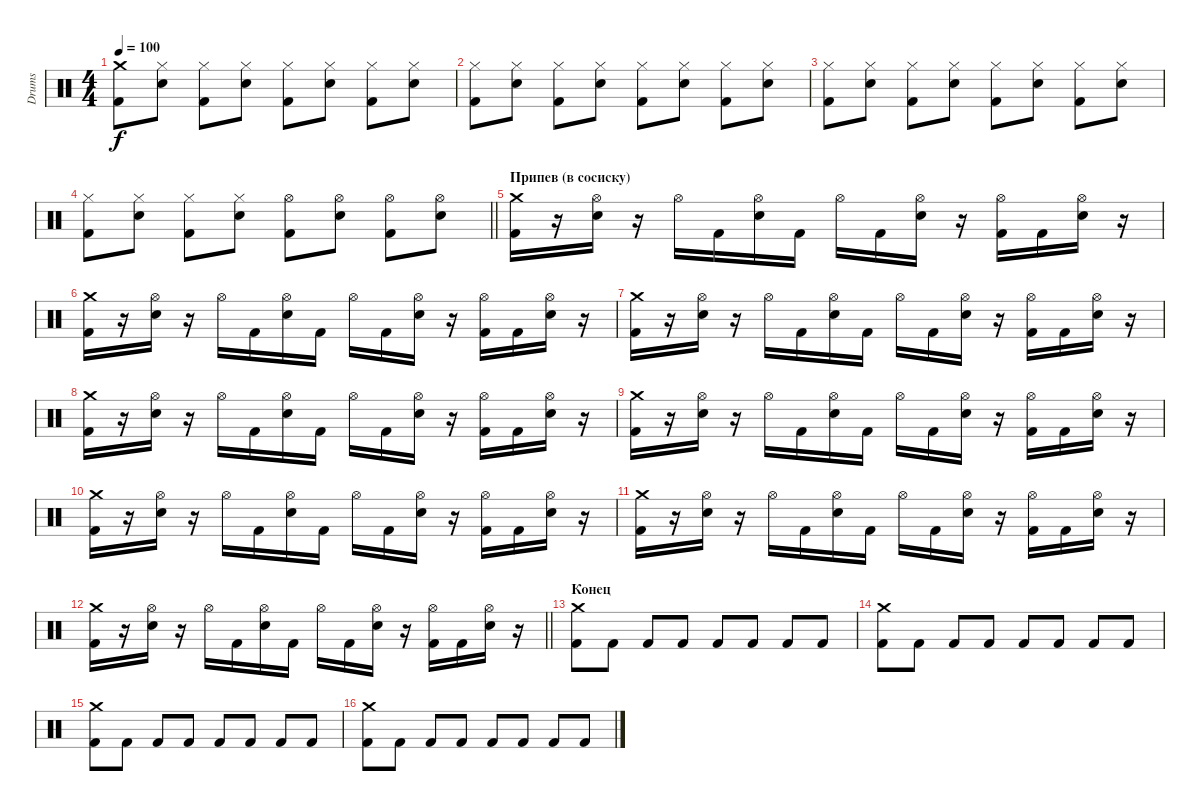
\track ("Drums" "Drums") {instrument percussion}
\staff {score}
\articulation defaults
\ts (4 4)
\tempo 100
\clef neutral
\ks c
("Crash medium (hit)" "Kick (hit) 2").8{dy f} ("Hi-Hat (closed)" "Snare (hit) 2").8 ("Hi-Hat (closed)" "Kick (hit) 2").8 ("Hi-Hat (closed)" "Snare (hit) 2").8 ("Hi-Hat (closed)" "Kick (hit) 2").8 ("Hi-Hat (closed)" "Snare (hit) 2").8 ("Hi-Hat (closed)" "Kick (hit) 2").8 ("Hi-Hat (closed)" "Snare (hit) 2").8 |
("Hi-Hat (closed)" "Kick (hit) 2").8 ("Hi-Hat (closed)" "Snare (hit) 2").8 ("Hi-Hat (closed)" "Kick (hit) 2").8 ("Hi-Hat (closed)" "Snare (hit) 2").8 ("Hi-Hat (closed)" "Kick (hit) 2").8 ("Hi-Hat (closed)" "Snare (hit) 2").8 ("Hi-Hat (closed)" "Kick (hit) 2").8 ("Hi-Hat (closed)" "Snare (hit) 2").8 |
("Hi-Hat (closed)" "Kick (hit) 2").8 ("Hi-Hat (closed)" "Snare (hit) 2").8 ("Hi-Hat (closed)" "Kick (hit) 2").8 ("Hi-Hat (closed)" "Snare (hit) 2").8 ("Hi-Hat (closed)" "Kick (hit) 2").8 ("Hi-Hat (closed)" "Snare (hit) 2").8 ("Hi-Hat (closed)" "Kick (hit) 2").8 ("Hi-Hat (closed)" "Snare (hit) 2").8 |
\barLineRight lightlight
("Hi-Hat (closed)" "Kick (hit) 2").8 ("Hi-Hat (closed)" "Snare (hit) 2").8 ("Hi-Hat (closed)" "Kick (hit) 2").8 ("Hi-Hat (closed)" "Snare (hit) 2").8 ("Hi-Hat (open)" "Kick (hit) 2").8 ("Hi-Hat (open)" "Snare (hit) 2").8 ("Hi-Hat (open)" "Kick (hit) 2").8 ("Hi-Hat (open)" "Snare (hit) 2").8 |
\section ("" "Припев (в сосиску)")
("Crash medium (hit)" "Kick (hit) 2").16 r.16 ("Hi-Hat (open)" "Snare (hit) 2").16 r.16 "Hi-Hat (open)".16 "Kick (hit) 2".16 ("Hi-Hat (open)" "Snare (hit) 2").16 "Kick (hit) 2".16 "Hi-Hat (open)".16 "Kick (hit) 2".16 ("Hi-Hat (open)" "Snare (hit) 2").16 r.16 ("Hi-Hat (open)" "Kick (hit) 2").16 "Kick (hit) 2".16 ("Hi-Hat (open)" "Snare (hit) 2").16 r.16 |
("Crash medium (hit)" "Kick (hit) 2").16 r.16 ("Hi-Hat (open)" "Snare (hit) 2").16 r.16 "Hi-Hat (open)".16 "Kick (hit) 2".16 ("Hi-Hat (open)" "Snare (hit) 2").16 "Kick (hit) 2".16 "Hi-Hat (open)".16 "Kick (hit) 2".16 ("Hi-Hat (open)" "Snare (hit) 2").16 r.16 ("Hi-Hat (open)" "Kick (hit) 2").16 "Kick (hit) 2".16 ("Hi-Hat (open)" "Snare (hit) 2").16 r.16 |
("Crash medium (hit)" "Kick (hit) 2").16 r.16 ("Hi-Hat (open)" "Snare (hit) 2").16 r.16 "Hi-Hat (open)".16 "Kick (hit) 2".16 ("Hi-Hat (open)" "Snare (hit) 2").16 "Kick (hit) 2".16 "Hi-Hat (open)".16 "Kick (hit) 2".16 ("Hi-Hat (open)" "Snare (hit) 2").16 r.16 ("Hi-Hat (open)" "Kick (hit) 2").16 "Kick (hit) 2".16 ("Hi-Hat (open)" "Snare (hit) 2").16 r.16 |
("Crash medium (hit)" "Kick (hit) 2").16 r.16 ("Hi-Hat (open)" "Snare (hit) 2").16 r.16 "Hi-Hat (open)".16 "Kick (hit) 2".16 ("Hi-Hat (open)" "Snare (hit) 2").16 "Kick (hit) 2".16 "Hi-Hat (open)".16 "Kick (hit) 2".16 ("Hi-Hat (open)" "Snare (hit) 2").16 r.16 ("Hi-Hat (open)" "Kick (hit) 2").16 "Kick (hit) 2".16 ("Hi-Hat (open)" "Snare (hit) 2").16 r.16 |
("Crash medium (hit)" "Kick (hit) 2").16 r.16 ("Hi-Hat (open)" "Snare (hit) 2").16 r.16 "Hi-Hat (open)".16 "Kick (hit) 2".16 ("Hi-Hat (open)" "Snare (hit) 2").16 "Kick (hit) 2".16 "Hi-Hat (open)".16 "Kick (hit) 2".16 ("Hi-Hat (open)" "Snare (hit) 2").16 r.16 ("Hi-Hat (open)" "Kick (hit) 2").16 "Kick (hit) 2".16 ("Hi-Hat (open)" "Snare (hit) 2").16 r.16 |
("Crash medium (hit)" "Kick (hit) 2").16 r.16 ("Hi-Hat (open)" "Snare (hit) 2").16 r.16 "Hi-Hat (open)".16 "Kick (hit) 2".16 ("Hi-Hat (open)" "Snare (hit) 2").16 "Kick (hit) 2".16 "Hi-Hat (open)".16 "Kick (hit) 2".16 ("Hi-Hat (open)" "Snare (hit) 2").16 r.16 ("Hi-Hat (open)" "Kick (hit) 2").16 "Kick (hit) 2".16 ("Hi-Hat (open)" "Snare (hit) 2").16 r.16 |
("Crash medium (hit)" "Kick (hit) 2").16 r.16 ("Hi-Hat (open)" "Snare (hit) 2").16 r.16 "Hi-Hat (open)".16 "Kick (hit) 2".16 ("Hi-Hat (open)" "Snare (hit) 2").16 "Kick (hit) 2".16 "Hi-Hat (open)".16 "Kick (hit) 2".16 ("Hi-Hat (open)" "Snare (hit) 2").16 r.16 ("Hi-Hat (open)" "Kick (hit) 2").16 "Kick (hit) 2".16 ("Hi-Hat (open)" "Snare (hit) 2").16 r.16 |
\barLineRight lightlight
("Crash medium (hit)" "Kick (hit) 2").16 r.16 ("Hi-Hat (open)" "Snare (hit) 2").16 r.16 "Hi-Hat (open)".16 "Kick (hit) 2".16 ("Hi-Hat (open)" "Snare (hit) 2").16 "Kick (hit) 2".16 "Hi-Hat (open)".16 "Kick (hit) 2".16 ("Hi-Hat (open)" "Snare (hit) 2").16 r.16 ("Hi-Hat (open)" "Kick (hit) 2").16 "Kick (hit) 2".16 ("Hi-Hat (open)" "Snare (hit) 2").16 r.16 |
\section ("" "Конец")
("Crash medium (hit)" "Kick (hit) 2").8 "Kick (hit) 2".8 "Kick (hit) 2".8 "Kick (hit) 2".8 "Kick (hit) 2".8 "Kick (hit) 2".8 "Kick (hit) 2".8 "Kick (hit) 2".8 |
("Crash medium (hit)" "Kick (hit) 2").8 "Kick (hit) 2".8 "Kick (hit) 2".8 "Kick (hit) 2".8 "Kick (hit) 2".8 "Kick (hit) 2".8 "Kick (hit) 2".8 "Kick (hit) 2".8 |
("Crash medium (hit)" "Kick (hit) 2").8 "Kick (hit) 2".8 "Kick (hit) 2".8 "Kick (hit) 2".8 "Kick (hit) 2".8 "Kick (hit) 2".8 "Kick (hit) 2".8 "Kick (hit) 2".8 |
("Crash medium (hit)" "Kick (hit) 2").8 "Kick (hit) 2".8 "Kick (hit) 2".8 "Kick (hit) 2".8 "Kick (hit) 2".8 "Kick (hit) 2".8 "Kick (hit) 2".8 "Kick (hit) 2".8
